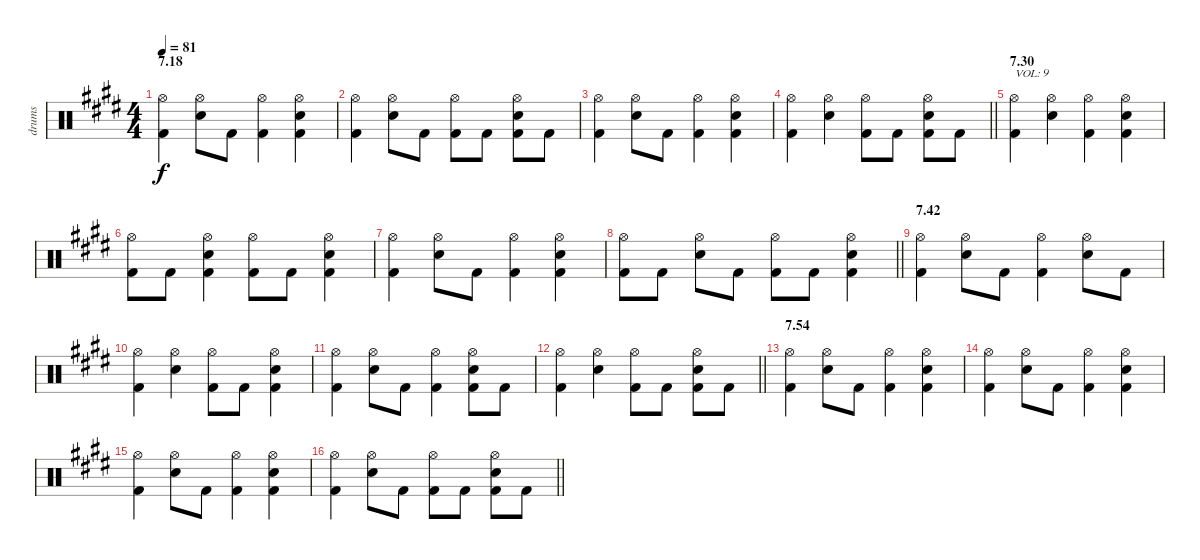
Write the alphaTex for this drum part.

\track ("drums" "drums") {instrument percussion}
\staff {score}
\articulation defaults
\ts (4 4)
\section ("" "7.18")
\tempo 81
\clef neutral
\ks e
("Hi-Hat (open)" "Kick (hit) 2").4{dy f} ("Hi-Hat (open)" "Electric Snare (hit)").8 "Kick (hit) 2".8 ("Hi-Hat (open)" "Kick (hit) 2").4 ("Hi-Hat (open)" "Electric Snare (hit)" "Kick (hit) 2").4 |
("Hi-Hat (open)" "Kick (hit) 2").4 ("Hi-Hat (open)" "Electric Snare (hit)").8 "Kick (hit) 2".8 ("Hi-Hat (open)" "Kick (hit) 2").8 "Kick (hit) 2".8 ("Hi-Hat (open)" "Electric Snare (hit)" "Kick (hit) 2").8 "Kick (hit) 2".8 |
("Hi-Hat (open)" "Kick (hit) 2").4 ("Hi-Hat (open)" "Electric Snare (hit)").8 "Kick (hit) 2".8 ("Hi-Hat (open)" "Kick (hit) 2").4 ("Hi-Hat (open)" "Electric Snare (hit)" "Kick (hit) 2").4 |
\barLineRight lightlight
("Hi-Hat (open)" "Kick (hit) 2").4 ("Hi-Hat (open)" "Electric Snare (hit)").4 ("Hi-Hat (open)" "Kick (hit) 2").8 "Kick (hit) 2".8 ("Hi-Hat (open)" "Electric Snare (hit)" "Kick (hit) 2").8 "Kick (hit) 2".8 |
\section ("" "7.30")
("Hi-Hat (open)" "Kick (hit) 2").4{txt "VOL: 9" volume 9} ("Hi-Hat (open)" "Electric Snare (hit)").4 ("Hi-Hat (open)" "Kick (hit) 2").4 ("Hi-Hat (open)" "Electric Snare (hit)" "Kick (hit) 2").4 |
("Hi-Hat (open)" "Kick (hit) 2").8 "Kick (hit) 2".8 ("Hi-Hat (open)" "Electric Snare (hit)" "Kick (hit) 2").4 ("Hi-Hat (open)" "Kick (hit) 2").8 "Kick (hit) 2".8 ("Hi-Hat (open)" "Electric Snare (hit)" "Kick (hit) 2").4 |
("Hi-Hat (open)" "Kick (hit) 2").4 ("Hi-Hat (open)" "Electric Snare (hit)").8 "Kick (hit) 2".8 ("Hi-Hat (open)" "Kick (hit) 2").4 ("Hi-Hat (open)" "Electric Snare (hit)" "Kick (hit) 2").4 |
\barLineRight lightlight
("Hi-Hat (open)" "Kick (hit) 2").8 "Kick (hit) 2".8 ("Hi-Hat (open)" "Electric Snare (hit)").8 "Kick (hit) 2".8 ("Hi-Hat (open)" "Kick (hit) 2").8 "Kick (hit) 2".8 ("Hi-Hat (open)" "Electric Snare (hit)" "Kick (hit) 2").4 |
\section ("" "7.42")
("Hi-Hat (open)" "Kick (hit) 2").4 ("Hi-Hat (open)" "Electric Snare (hit)").8 "Kick (hit) 2".8 ("Hi-Hat (open)" "Kick (hit) 2").4 ("Hi-Hat (open)" "Electric Snare (hit)").8 "Kick (hit) 2".8 |
("Hi-Hat (open)" "Kick (hit) 2").4 ("Hi-Hat (open)" "Electric Snare (hit)").4 ("Hi-Hat (open)" "Kick (hit) 2").8 "Kick (hit) 2".8 ("Hi-Hat (open)" "Electric Snare (hit)" "Kick (hit) 2").4 |
("Hi-Hat (open)" "Kick (hit) 2").4 ("Hi-Hat (open)" "Electric Snare (hit)").8 "Kick (hit) 2".8 ("Hi-Hat (open)" "Kick (hit) 2").4 ("Hi-Hat (open)" "Electric Snare (hit)" "Kick (hit) 2").8 "Kick (hit) 2".8 |
\barLineRight lightlight
("Hi-Hat (open)" "Kick (hit) 2").4 ("Hi-Hat (open)" "Electric Snare (hit)").4 ("Hi-Hat (open)" "Kick (hit) 2").8 "Kick (hit) 2".8 ("Hi-Hat (open)" "Electric Snare (hit)" "Kick (hit) 2").8 "Kick (hit) 2".8 |
\section ("" "7.54")
("Hi-Hat (open)" "Kick (hit) 2").4 ("Hi-Hat (open)" "Electric Snare (hit)").8 "Kick (hit) 2".8 ("Hi-Hat (open)" "Kick (hit) 2").4 ("Hi-Hat (open)" "Electric Snare (hit)" "Kick (hit) 2").4 |
("Hi-Hat (open)" "Kick (hit) 2").4 ("Hi-Hat (open)" "Electric Snare (hit)").8 "Kick (hit) 2".8 ("Hi-Hat (open)" "Kick (hit) 2").4 ("Hi-Hat (open)" "Electric Snare (hit)" "Kick (hit) 2").4 |
("Hi-Hat (open)" "Kick (hit) 2").4 ("Hi-Hat (open)" "Electric Snare (hit)").8 "Kick (hit) 2".8 ("Hi-Hat (open)" "Kick (hit) 2").4 ("Hi-Hat (open)" "Electric Snare (hit)" "Kick (hit) 2").4 |
\barLineRight lightlight
("Hi-Hat (open)" "Kick (hit) 2").4 ("Hi-Hat (open)" "Electric Snare (hit)").8 "Kick (hit) 2".8 ("Hi-Hat (open)" "Kick (hit) 2").8 "Kick (hit) 2".8 ("Hi-Hat (open)" "Electric Snare (hit)" "Kick (hit) 2").8 "Kick (hit) 2".8
